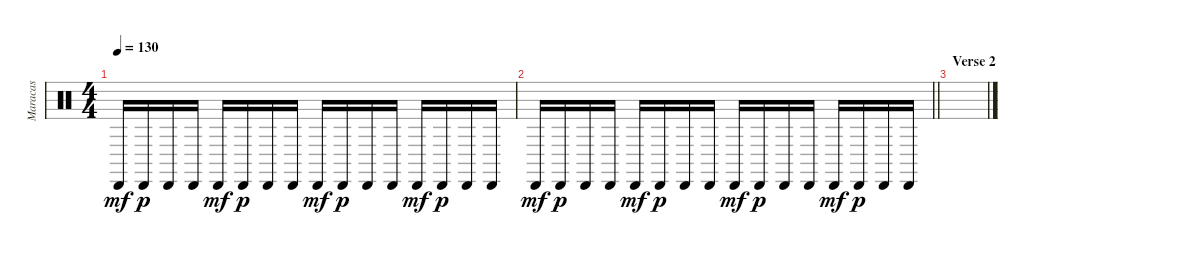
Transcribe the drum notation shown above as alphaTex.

\track ("Maracas" "Maracas") {instrument percussion}
\staff {score}
\articulation defaults
\ts (4 4)
\tempo 130
\clef neutral
\ks c "Cabasa (hit)".16{dy mf} "Cabasa (hit)".16{dy p} "Cabasa (hit)".16 "Cabasa (hit)".16 "Cabasa (hit)".16{dy mf} "Cabasa (hit)".16{dy p} "Cabasa (hit)".16 "Cabasa (hit)".16 "Cabasa (hit)".16{dy mf} "Cabasa (hit)".16{dy p} "Cabasa (hit)".16 "Cabasa (hit)".16 "Cabasa (hit)".16{dy mf} "Cabasa (hit)".16{dy p} "Cabasa (hit)".16 "Cabasa (hit)".16
|
\barLineRight lightlight "Cabasa (hit)".16{dy mf} "Cabasa (hit)".16{dy p} "Cabasa (hit)".16 "Cabasa (hit)".16 "Cabasa (hit)".16{dy mf} "Cabasa (hit)".16{dy p} "Cabasa (hit)".16 "Cabasa (hit)".16 "Cabasa (hit)".16{dy mf} "Cabasa (hit)".16{dy p} "Cabasa (hit)".16 "Cabasa (hit)".16 "Cabasa (hit)".16{dy mf} "Cabasa (hit)".16{dy p} "Cabasa (hit)".16 "Cabasa (hit)".16
|
\section ("" "Verse 2")
